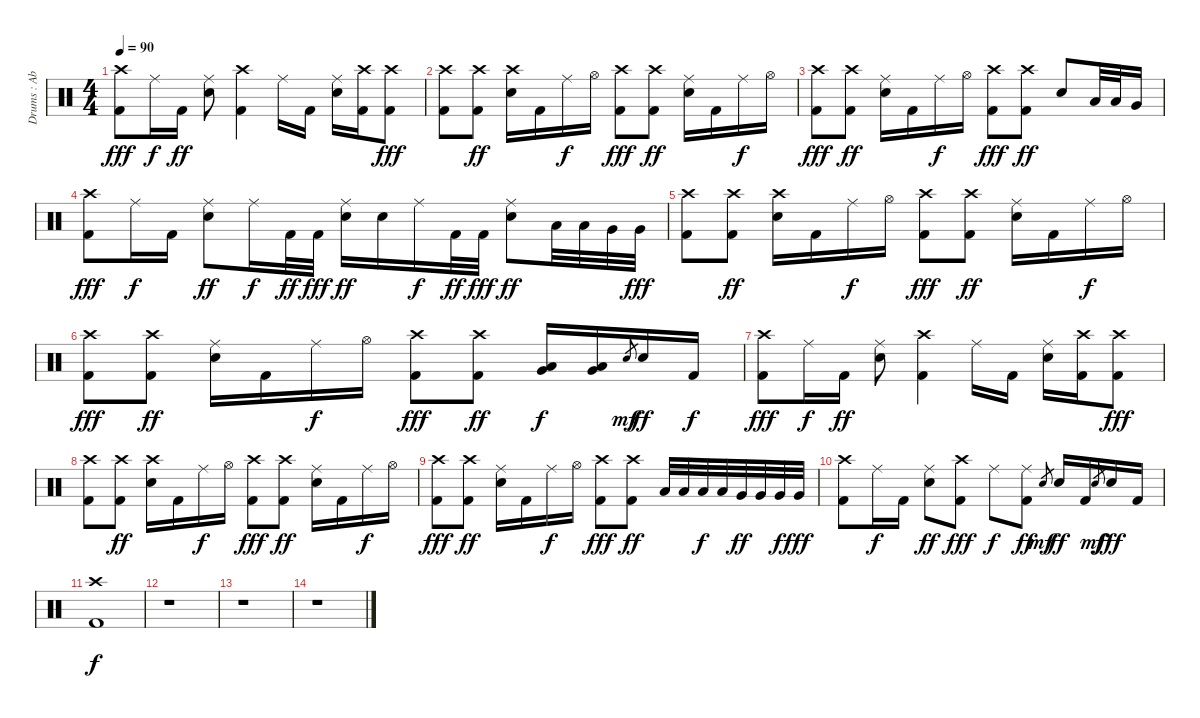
\track ("Drums : Abe Cunnigham" "Drums : Ab") {instrument percussion}
\staff {score}
\articulation defaults
\ts (4 4)
\tempo 90
\clef neutral
\ks c
("Crash high (hit)" "Kick (hit) 2").8{dy fff} "Ride (middle)".16{dy f} "Kick (hit) 2".16{dy ff} ("Ride (middle)" "Electric Snare (hit)").8 ("Crash high (hit)" "Kick (hit) 2").4 "Ride (middle)".16 "Kick (hit) 2".16 ("Ride (middle)" "Electric Snare (hit)").16 ("Crash high (hit)" "Kick (hit) 2").16 ("Crash high (hit)" "Kick (hit) 2").8{dy fff} |
("Crash high (hit)" "Kick (hit) 2").8 ("Crash high (hit)" "Kick (hit) 2").8{dy ff} ("Crash high (hit)" "Electric Snare (hit)").16 "Kick (hit) 2".16 "Ride (middle)".16{dy f} "Hi-Hat (open)".16 ("Crash high (hit)" "Kick (hit) 2").8{dy fff} ("Crash high (hit)" "Kick (hit) 2").8{dy ff} ("Ride (middle)" "Electric Snare (hit)").16 "Kick (hit) 2".16 "Ride (middle)".16{dy f} "Hi-Hat (open)".16 |
("Crash high (hit)" "Kick (hit) 2").8{dy fff} ("Crash high (hit)" "Kick (hit) 2").8{dy ff} ("Ride (middle)" "Electric Snare (hit)").16 "Kick (hit) 2".16 "Ride (middle)".16{dy f} "Hi-Hat (open)".16 ("Crash high (hit)" "Kick (hit) 2").8{dy fff} ("Crash high (hit)" "Kick (hit) 2").8{dy ff} "Electric Snare (hit)".8 "Low Tom (hit)".32 "Low Tom (hit)".32 "Very Low Tom (hit)".16 |
("Crash high (hit)" "Kick (hit) 2").8{dy fff} "Ride (middle)".16{dy f} "Kick (hit) 2".16 ("Ride (middle)" "Electric Snare (hit)").8{dy ff} "Ride (middle)".16{dy f} "Kick (hit) 2".32{dy ff} "Kick (hit) 2".32{dy fff} ("Ride (middle)" "Electric Snare (hit)").16{dy ff} "Electric Snare (hit)".16 "Ride (middle)".16{dy f} "Kick (hit) 2".32{dy ff} "Kick (hit) 2".32{dy fff} ("Ride (middle)" "Electric Snare (hit)").8{dy ff} "Low Tom (hit)".32 "Low Tom (hit)".32 "Very Low Tom (hit)".32 "Very Low Tom (hit)".32{dy fff} |
("Crash high (hit)" "Kick (hit) 2").8 ("Crash high (hit)" "Kick (hit) 2").8{dy ff} ("Crash high (hit)" "Electric Snare (hit)").16 "Kick (hit) 2".16 "Ride (middle)".16{dy f} "Hi-Hat (open)".16 ("Crash high (hit)" "Kick (hit) 2").8{dy fff} ("Crash high (hit)" "Kick (hit) 2").8{dy ff} ("Ride (middle)" "Electric Snare (hit)").16 "Kick (hit) 2".16 "Ride (middle)".16{dy f} "Hi-Hat (open)".16 |
("Crash high (hit)" "Kick (hit) 2").8{dy fff} ("Crash high (hit)" "Kick (hit) 2").8{dy ff} ("Ride (middle)" "Electric Snare (hit)").16 "Kick (hit) 2".16 "Ride (middle)".16{dy f} "Hi-Hat (open)".16 ("Crash high (hit)" "Kick (hit) 2").8{dy fff} ("Crash high (hit)" "Kick (hit) 2").8{dy ff} ("Low Tom (hit)" "Very Low Tom (hit)").16{dy f} ("Low Tom (hit)" "Very Low Tom (hit)").16 "Electric Snare (hit)".8{gr dy mf} "Electric Snare (hit)".16{dy ff} "Kick (hit) 2".16{dy f} |
("Crash high (hit)" "Kick (hit) 2").8{dy fff} "Ride (middle)".16{dy f} "Kick (hit) 2".16{dy ff} ("Ride (middle)" "Electric Snare (hit)").8 ("Crash high (hit)" "Kick (hit) 2").4 "Ride (middle)".16 "Kick (hit) 2".16 ("Ride (middle)" "Electric Snare (hit)").16 ("Crash high (hit)" "Kick (hit) 2").16 ("Crash high (hit)" "Kick (hit) 2").8{dy fff} |
("Crash high (hit)" "Kick (hit) 2").8 ("Crash high (hit)" "Kick (hit) 2").8{dy ff} ("Crash high (hit)" "Electric Snare (hit)").16 "Kick (hit) 2".16 "Ride (middle)".16{dy f} "Hi-Hat (open)".16 ("Crash high (hit)" "Kick (hit) 2").8{dy fff} ("Crash high (hit)" "Kick (hit) 2").8{dy ff} ("Ride (middle)" "Electric Snare (hit)").16 "Kick (hit) 2".16 "Ride (middle)".16{dy f} "Hi-Hat (open)".16 |
("Crash high (hit)" "Kick (hit) 2").8{dy fff} ("Crash high (hit)" "Kick (hit) 2").8{dy ff} ("Ride (middle)" "Electric Snare (hit)").16 "Kick (hit) 2".16 "Ride (middle)".16{dy f} "Hi-Hat (open)".16 ("Crash high (hit)" "Kick (hit) 2").8{dy fff} ("Crash high (hit)" "Kick (hit) 2").8{dy ff} "Low Tom (hit)".32 "Low Tom (hit)".32 "Low Tom (hit)".32{dy f} "Low Tom (hit)".32 "Very Low Tom (hit)".32{dy ff} "Very Low Tom (hit)".32 "Very Low Tom (hit)".32{dy f} "Very Low Tom (hit)".32{dy fff} |
("Crash high (hit)" "Kick (hit) 2").8 "Ride (middle)".16{dy f} "Kick (hit) 2".16 ("Ride (middle)" "Electric Snare (hit)").8{dy ff} ("Crash high (hit)" "Kick (hit) 2").8{dy fff} "Ride (middle)".8{dy f} ("Ride (middle)" "Kick (hit) 2").8{dy ff} "Electric Snare (hit)".8{gr dy mf} "Electric Snare (hit)".16{dy ff} "Kick (hit) 2".16 "Electric Snare (hit)".8{gr dy mf} "Electric Snare (hit)".16{dy fff} "Kick (hit) 2".16 |
("Crash high (hit)" "Kick (hit) 2").1{dy f} |
r.1 |
r.1 |
r.1
